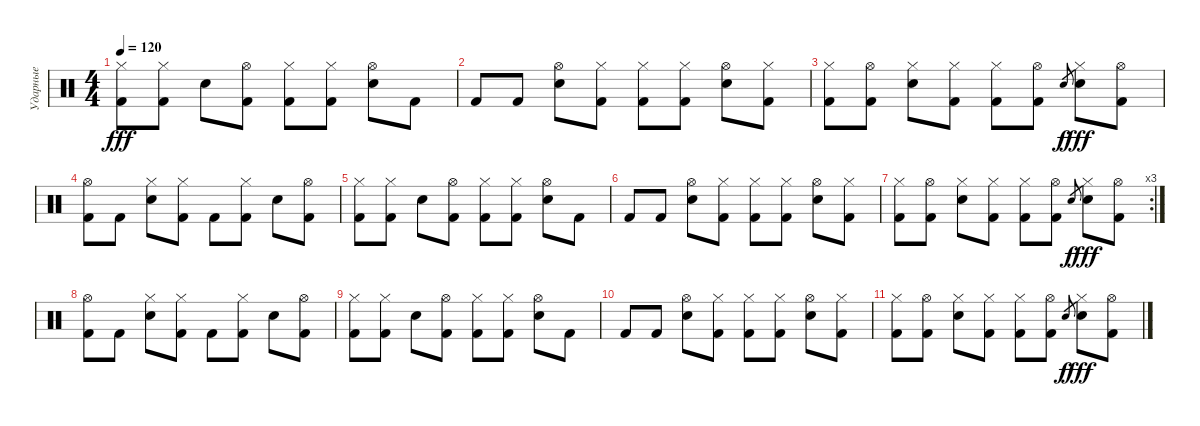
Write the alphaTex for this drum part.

\track ("Ударные" "Ударные") {instrument percussion}
\staff {score}
\articulation defaults
\ts (4 4)
\tempo 120
\clef neutral
\ks c
("Hi-Hat (closed)" "Kick (hit) 2").8{dy fff} ("Hi-Hat (closed)" "Kick (hit) 2").8 "Electric Snare (hit)".8 ("Hi-Hat (open)" "Kick (hit) 2").8 ("Hi-Hat (closed)" "Kick (hit) 2").8 ("Hi-Hat (closed)" "Kick (hit) 2").8 ("Hi-Hat (open)" "Electric Snare (hit)").8 "Kick (hit) 2".8 |
"Kick (hit) 2".8 "Kick (hit) 2".8 ("Hi-Hat (open)" "Electric Snare (hit)").8 ("Hi-Hat (closed)" "Kick (hit) 2").8 ("Hi-Hat (closed)" "Kick (hit) 2").8 ("Hi-Hat (closed)" "Kick (hit) 2").8 ("Hi-Hat (open)" "Electric Snare (hit)").8 ("Hi-Hat (closed)" "Kick (hit) 2").8 |
("Hi-Hat (closed)" "Kick (hit) 2").8 ("Hi-Hat (open)" "Kick (hit) 2").8 ("Hi-Hat (closed)" "Electric Snare (hit)").8 ("Hi-Hat (closed)" "Kick (hit) 2").8 ("Hi-Hat (closed)" "Kick (hit) 2").8 ("Hi-Hat (open)" "Kick (hit) 2").8 "Electric Snare (hit)".8{gr dy f} ("Hi-Hat (closed)" "Electric Snare (hit)").8{dy fff} ("Hi-Hat (open)" "Kick (hit) 2").8 |
("Hi-Hat (open)" "Kick (hit) 2").8 "Kick (hit) 2".8 ("Hi-Hat (closed)" "Electric Snare (hit)").8 ("Hi-Hat (closed)" "Kick (hit) 2").8 "Kick (hit) 2".8 ("Hi-Hat (closed)" "Kick (hit) 2").8 "Electric Snare (hit)".8 ("Hi-Hat (open)" "Kick (hit) 2").8 |
("Hi-Hat (closed)" "Kick (hit) 2").8 ("Hi-Hat (closed)" "Kick (hit) 2").8 "Electric Snare (hit)".8 ("Hi-Hat (open)" "Kick (hit) 2").8 ("Hi-Hat (closed)" "Kick (hit) 2").8 ("Hi-Hat (closed)" "Kick (hit) 2").8 ("Hi-Hat (open)" "Electric Snare (hit)").8 "Kick (hit) 2".8 |
"Kick (hit) 2".8 "Kick (hit) 2".8 ("Hi-Hat (open)" "Electric Snare (hit)").8 ("Hi-Hat (closed)" "Kick (hit) 2").8 ("Hi-Hat (closed)" "Kick (hit) 2").8 ("Hi-Hat (closed)" "Kick (hit) 2").8 ("Hi-Hat (open)" "Electric Snare (hit)").8 ("Hi-Hat (closed)" "Kick (hit) 2").8 |
\rc 3
("Hi-Hat (closed)" "Kick (hit) 2").8 ("Hi-Hat (open)" "Kick (hit) 2").8 ("Hi-Hat (closed)" "Electric Snare (hit)").8 ("Hi-Hat (closed)" "Kick (hit) 2").8 ("Hi-Hat (closed)" "Kick (hit) 2").8 ("Hi-Hat (open)" "Kick (hit) 2").8 "Electric Snare (hit)".8{gr dy f} ("Hi-Hat (closed)" "Electric Snare (hit)").8{dy fff} ("Hi-Hat (open)" "Kick (hit) 2").8 |
("Hi-Hat (open)" "Kick (hit) 2").8 "Kick (hit) 2".8 ("Hi-Hat (closed)" "Electric Snare (hit)").8 ("Hi-Hat (closed)" "Kick (hit) 2").8 "Kick (hit) 2".8 ("Hi-Hat (closed)" "Kick (hit) 2").8 "Electric Snare (hit)".8 ("Hi-Hat (open)" "Kick (hit) 2").8 |
("Hi-Hat (closed)" "Kick (hit) 2").8 ("Hi-Hat (closed)" "Kick (hit) 2").8 "Electric Snare (hit)".8 ("Hi-Hat (open)" "Kick (hit) 2").8 ("Hi-Hat (closed)" "Kick (hit) 2").8 ("Hi-Hat (closed)" "Kick (hit) 2").8 ("Hi-Hat (open)" "Electric Snare (hit)").8 "Kick (hit) 2".8 |
"Kick (hit) 2".8 "Kick (hit) 2".8 ("Hi-Hat (open)" "Electric Snare (hit)").8 ("Hi-Hat (closed)" "Kick (hit) 2").8 ("Hi-Hat (closed)" "Kick (hit) 2").8 ("Hi-Hat (closed)" "Kick (hit) 2").8 ("Hi-Hat (open)" "Electric Snare (hit)").8 ("Hi-Hat (closed)" "Kick (hit) 2").8 |
("Hi-Hat (closed)" "Kick (hit) 2").8 ("Hi-Hat (open)" "Kick (hit) 2").8 ("Hi-Hat (closed)" "Electric Snare (hit)").8 ("Hi-Hat (closed)" "Kick (hit) 2").8 ("Hi-Hat (closed)" "Kick (hit) 2").8 ("Hi-Hat (open)" "Kick (hit) 2").8 "Electric Snare (hit)".8{gr dy f} ("Hi-Hat (closed)" "Electric Snare (hit)").8{dy fff} ("Hi-Hat (open)" "Kick (hit) 2").8
